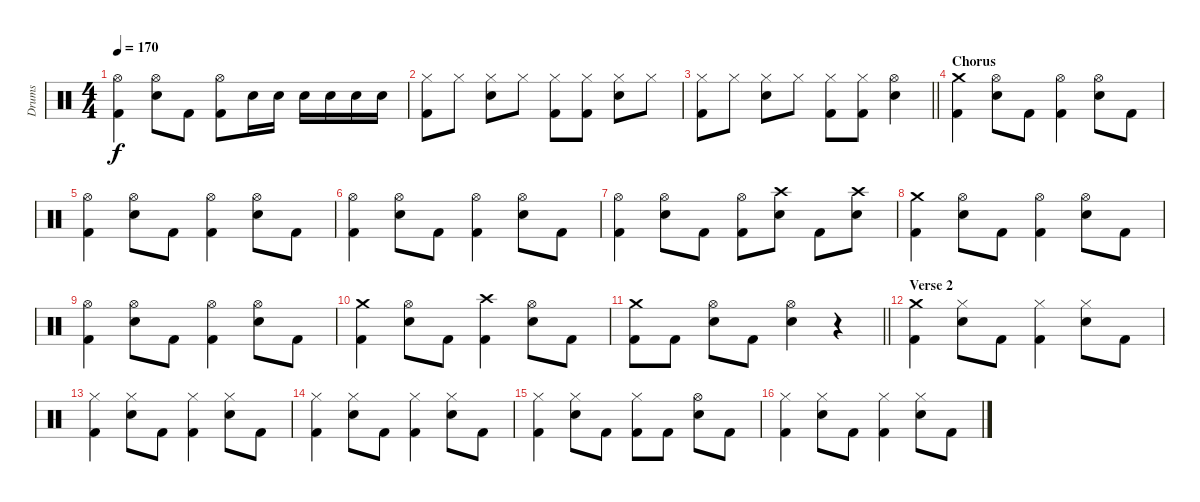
\track ("Drums" "Drums") {instrument percussion}
\staff {score}
\articulation defaults
\ts (4 4)
\tempo 170
\clef neutral
\ks c
("Hi-Hat (open)" "Kick (hit) 2").4{dy f} ("Hi-Hat (open)" "Electric Snare (hit)").8 "Kick (hit) 2".8 ("Hi-Hat (open)" "Kick (hit) 2").8 "Electric Snare (hit)".16 "Electric Snare (hit)".16 "Electric Snare (hit)".16 "Electric Snare (hit)".16 "Electric Snare (hit)".16 "Electric Snare (hit)".16 |
("Hi-Hat (closed)" "Kick (hit) 2").8 "Hi-Hat (closed)".8 ("Hi-Hat (closed)" "Electric Snare (hit)").8 "Hi-Hat (closed)".8 ("Hi-Hat (closed)" "Kick (hit) 2").8 ("Hi-Hat (closed)" "Kick (hit) 2").8 ("Hi-Hat (closed)" "Electric Snare (hit)").8 "Hi-Hat (closed)".8 |
\barLineRight lightlight
("Hi-Hat (closed)" "Kick (hit) 2").8 "Hi-Hat (closed)".8 ("Hi-Hat (closed)" "Electric Snare (hit)").8 "Hi-Hat (closed)".8 ("Hi-Hat (closed)" "Kick (hit) 2").8 ("Hi-Hat (closed)" "Kick (hit) 2").8 ("Hi-Hat (open)" "Electric Snare (hit)").4 |
\section ("" "Chorus")
("Crash medium (hit)" "Kick (hit) 2").4 ("Hi-Hat (open)" "Electric Snare (hit)").8 "Kick (hit) 2".8 ("Hi-Hat (open)" "Kick (hit) 2").4 ("Hi-Hat (open)" "Electric Snare (hit)").8 "Kick (hit) 2".8 |
("Hi-Hat (open)" "Kick (hit) 2").4 ("Hi-Hat (open)" "Electric Snare (hit)").8 "Kick (hit) 2".8 ("Hi-Hat (open)" "Kick (hit) 2").4 ("Hi-Hat (open)" "Electric Snare (hit)").8 "Kick (hit) 2".8 |
("Hi-Hat (open)" "Kick (hit) 2").4 ("Hi-Hat (open)" "Electric Snare (hit)").8 "Kick (hit) 2".8 ("Hi-Hat (open)" "Kick (hit) 2").4 ("Hi-Hat (open)" "Electric Snare (hit)").8 "Kick (hit) 2".8 |
("Hi-Hat (open)" "Kick (hit) 2").4 ("Hi-Hat (open)" "Electric Snare (hit)").8 "Kick (hit) 2".8 ("Hi-Hat (open)" "Kick (hit) 2").8 ("Crash high (hit)" "Electric Snare (hit)").8 "Kick (hit) 2".8 ("Crash high (hit)" "Electric Snare (hit)").8 |
("Crash medium (hit)" "Kick (hit) 2").4 ("Hi-Hat (open)" "Electric Snare (hit)").8 "Kick (hit) 2".8 ("Hi-Hat (open)" "Kick (hit) 2").4 ("Hi-Hat (open)" "Electric Snare (hit)").8 "Kick (hit) 2".8 |
("Hi-Hat (open)" "Kick (hit) 2").4 ("Hi-Hat (open)" "Electric Snare (hit)").8 "Kick (hit) 2".8 ("Hi-Hat (open)" "Kick (hit) 2").4 ("Hi-Hat (open)" "Electric Snare (hit)").8 "Kick (hit) 2".8 |
("Crash medium (hit)" "Kick (hit) 2").4 ("Hi-Hat (open)" "Electric Snare (hit)").8 "Kick (hit) 2".8 ("Crash high (hit)" "Kick (hit) 2").4 ("Hi-Hat (open)" "Electric Snare (hit)").8 "Kick (hit) 2".8 |
\barLineRight lightlight
("Crash medium (hit)" "Kick (hit) 2").8 "Kick (hit) 2".8 ("Hi-Hat (open)" "Electric Snare (hit)").8 "Kick (hit) 2".8 ("Hi-Hat (open)" "Electric Snare (hit)").4 r.4 |
\section ("" "Verse 2")
("Crash medium (hit)" "Kick (hit) 2").4 ("Hi-Hat (closed)" "Electric Snare (hit)").8 "Kick (hit) 2".8 ("Hi-Hat (closed)" "Kick (hit) 2").4 ("Hi-Hat (closed)" "Electric Snare (hit)").8 "Kick (hit) 2".8 |
("Hi-Hat (closed)" "Kick (hit) 2").4 ("Hi-Hat (closed)" "Electric Snare (hit)").8 "Kick (hit) 2".8 ("Hi-Hat (closed)" "Kick (hit) 2").4 ("Hi-Hat (closed)" "Electric Snare (hit)").8 "Kick (hit) 2".8 |
("Hi-Hat (closed)" "Kick (hit) 2").4 ("Hi-Hat (closed)" "Electric Snare (hit)").8 "Kick (hit) 2".8 ("Hi-Hat (closed)" "Kick (hit) 2").4 ("Hi-Hat (closed)" "Electric Snare (hit)").8 "Kick (hit) 2".8 |
("Hi-Hat (closed)" "Kick (hit) 2").4 ("Hi-Hat (closed)" "Electric Snare (hit)").8 "Kick (hit) 2".8 ("Hi-Hat (closed)" "Kick (hit) 2").8 "Kick (hit) 2".8 ("Hi-Hat (open)" "Electric Snare (hit)").8 "Kick (hit) 2".8 |
("Hi-Hat (closed)" "Kick (hit) 2").4 ("Hi-Hat (closed)" "Electric Snare (hit)").8 "Kick (hit) 2".8 ("Hi-Hat (closed)" "Kick (hit) 2").4 ("Hi-Hat (closed)" "Electric Snare (hit)").8 "Kick (hit) 2".8
